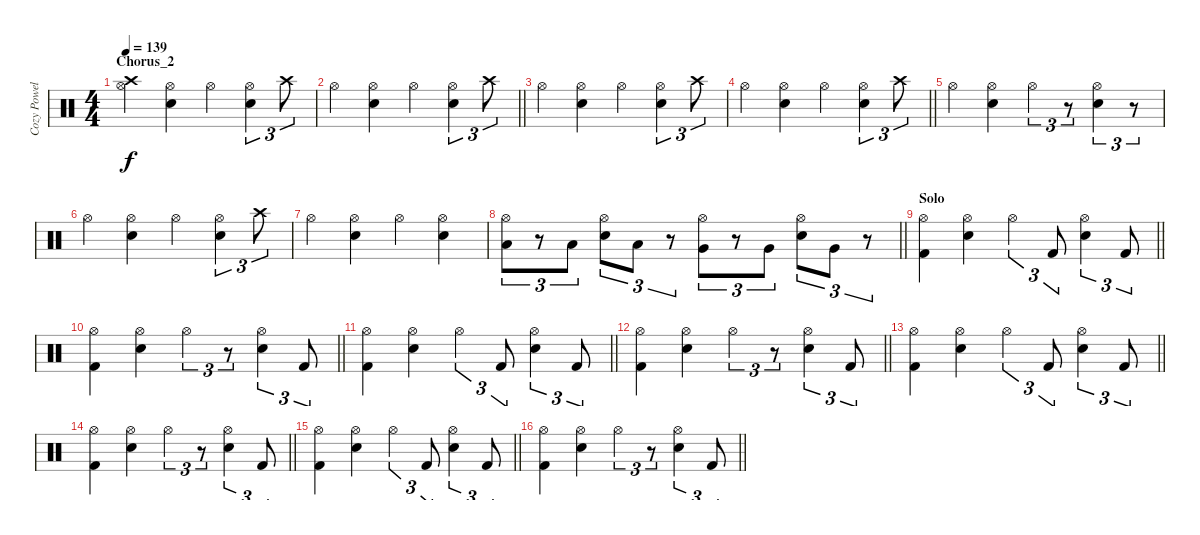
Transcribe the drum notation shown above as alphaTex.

\track ("Cozy Powell" "Cozy Powel") {instrument percussion}
\staff {score}
\articulation defaults
\ts (4 4)
\section ("" "Chorus_2")
\tempo 139
\clef neutral
\ks c
("Hi-Hat (open)" "Crash high (hit)").4{dy f} ("Hi-Hat (open)" "Snare (hit) 2").4 "Hi-Hat (open)".4 ("Hi-Hat (open)" "Snare (hit) 2").4{tu (3 2)} "Crash high (hit)".8{tu (3 2)} |
\barLineRight lightlight "Hi-Hat (open)".4
("Hi-Hat (open)" "Snare (hit) 2").4 "Hi-Hat (open)".4 ("Hi-Hat (open)" "Snare (hit) 2").4{tu (3 2)} "Crash high (hit)".8{tu (3 2)} |
"Hi-Hat (open)".4 ("Hi-Hat (open)" "Snare (hit) 2").4 "Hi-Hat (open)".4 ("Hi-Hat (open)" "Snare (hit) 2").4{tu (3 2)} "Crash high (hit)".8{tu (3 2)} |
\barLineRight lightlight "Hi-Hat (open)".4
("Hi-Hat (open)" "Snare (hit) 2").4 "Hi-Hat (open)".4 ("Hi-Hat (open)" "Snare (hit) 2").4{tu (3 2)} "Crash high (hit)".8{tu (3 2)} |
"Hi-Hat (open)".4 ("Hi-Hat (open)" "Snare (hit) 2").4 "Hi-Hat (open)".4{tu (3 2)} r.8{tu (3 2)} ("Hi-Hat (open)" "Snare (hit) 2").4{tu (3 2)} r.8{tu (3 2)} |
"Hi-Hat (open)".4 ("Hi-Hat (open)" "Snare (hit) 2").4 "Hi-Hat (open)".4 ("Hi-Hat (open)" "Snare (hit) 2").4{tu (3 2)} "Crash high (hit)".8{tu (3 2)} |
"Hi-Hat (open)".4 ("Hi-Hat (open)" "Snare (hit) 2").4 "Hi-Hat (open)".4 ("Hi-Hat (open)" "Snare (hit) 2").4 |
\barLineRight lightlight
("Hi-Hat (open)" "Low Tom (hit)").8{tu (3 2)} r.8{tu (3 2)} "Low Tom (hit)".8{tu (3 2)} ("Hi-Hat (open)" "Snare (hit) 2").8{tu (3 2)} "Low Tom (hit)".8{tu (3 2)} r.8{tu (3 2)} ("Hi-Hat (open)" "Very Low Tom (hit)").8{tu (3 2)} r.8{tu (3 2)} "Very Low Tom (hit)".8{tu (3 2)} ("Hi-Hat (open)" "Snare (hit) 2").8{tu (3 2)} "Very Low Tom (hit)".8{tu (3 2)} r.8{tu (3 2)} |
\section ("" "Solo")
\barLineRight lightlight
("Hi-Hat (open)" "Kick (hit) 2").4 ("Hi-Hat (open)" "Snare (hit) 2").4 "Hi-Hat (open)".4{tu (3 2)} "Kick (hit) 2".8{tu (3 2)} ("Hi-Hat (open)" "Snare (hit) 2").4{tu (3 2)} "Kick (hit) 2".8{tu (3 2)} |
\barLineRight lightlight
("Hi-Hat (open)" "Kick (hit) 2").4 ("Hi-Hat (open)" "Snare (hit) 2").4 "Hi-Hat (open)".4{tu (3 2)} r.8{tu (3 2)} ("Hi-Hat (open)" "Snare (hit) 2").4{tu (3 2)} "Kick (hit) 2".8{tu (3 2)} |
\barLineRight lightlight
("Hi-Hat (open)" "Kick (hit) 2").4 ("Hi-Hat (open)" "Snare (hit) 2").4 "Hi-Hat (open)".4{tu (3 2)} "Kick (hit) 2".8{tu (3 2)} ("Hi-Hat (open)" "Snare (hit) 2").4{tu (3 2)} "Kick (hit) 2".8{tu (3 2)} |
\barLineRight lightlight
("Hi-Hat (open)" "Kick (hit) 2").4 ("Hi-Hat (open)" "Snare (hit) 2").4 "Hi-Hat (open)".4{tu (3 2)} r.8{tu (3 2)} ("Hi-Hat (open)" "Snare (hit) 2").4{tu (3 2)} "Kick (hit) 2".8{tu (3 2)} |
\barLineRight lightlight
("Hi-Hat (open)" "Kick (hit) 2").4 ("Hi-Hat (open)" "Snare (hit) 2").4 "Hi-Hat (open)".4{tu (3 2)} "Kick (hit) 2".8{tu (3 2)} ("Hi-Hat (open)" "Snare (hit) 2").4{tu (3 2)} "Kick (hit) 2".8{tu (3 2)} |
\barLineRight lightlight
("Hi-Hat (open)" "Kick (hit) 2").4 ("Hi-Hat (open)" "Snare (hit) 2").4 "Hi-Hat (open)".4{tu (3 2)} r.8{tu (3 2)} ("Hi-Hat (open)" "Snare (hit) 2").4{tu (3 2)} "Kick (hit) 2".8{tu (3 2)} |
\barLineRight lightlight
("Hi-Hat (open)" "Kick (hit) 2").4 ("Hi-Hat (open)" "Snare (hit) 2").4 "Hi-Hat (open)".4{tu (3 2)} "Kick (hit) 2".8{tu (3 2)} ("Hi-Hat (open)" "Snare (hit) 2").4{tu (3 2)} "Kick (hit) 2".8{tu (3 2)} |
\barLineRight lightlight
("Hi-Hat (open)" "Kick (hit) 2").4 ("Hi-Hat (open)" "Snare (hit) 2").4 "Hi-Hat (open)".4{tu (3 2)} r.8{tu (3 2)} ("Hi-Hat (open)" "Snare (hit) 2").4{tu (3 2)} "Kick (hit) 2".8{tu (3 2)}
